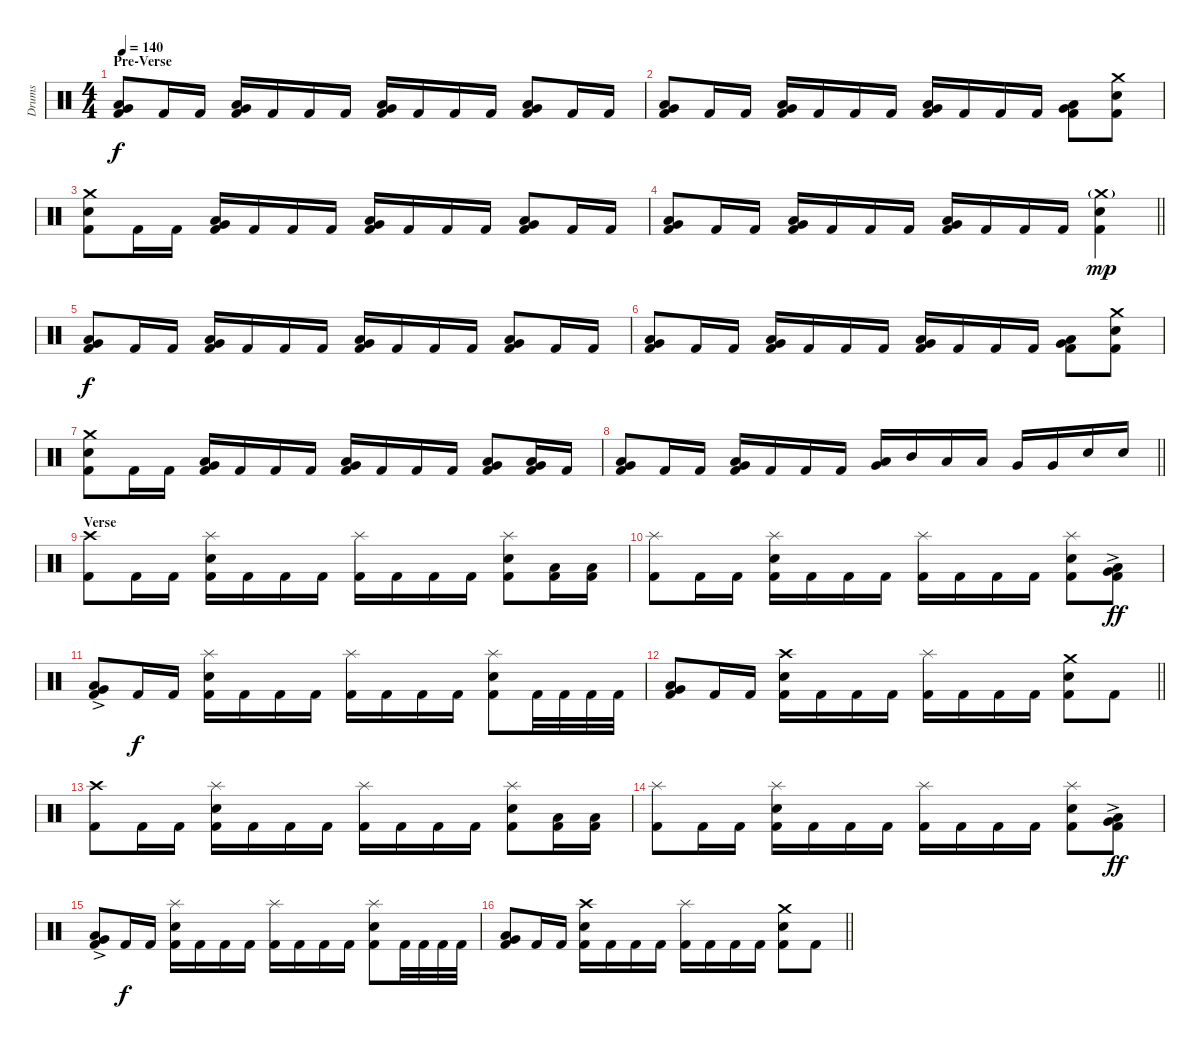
\track ("Drums" "Drums") {instrument percussion}
\staff {score}
\articulation defaults
\ts (4 4)
\section ("" "Pre-Verse")
\tempo 140
\clef neutral
\ks c
("Kick (hit) 2" "Very Low Tom (hit)" "Low Floor Tom (hit)").8{dy f volume 14} "Kick (hit) 2".16 "Kick (hit) 2".16 ("Kick (hit) 2" "Very Low Tom (hit)" "Low Floor Tom (hit)").16 "Kick (hit) 2".16 "Kick (hit) 2".16 "Kick (hit) 2".16 ("Kick (hit) 2" "Very Low Tom (hit)" "Low Floor Tom (hit)").16 "Kick (hit) 2".16 "Kick (hit) 2".16 "Kick (hit) 2".16 ("Kick (hit) 2" "Very Low Tom (hit)" "Low Floor Tom (hit)").8 "Kick (hit) 2".16 "Kick (hit) 2".16 |
("Kick (hit) 2" "Very Low Tom (hit)" "Low Floor Tom (hit)").8 "Kick (hit) 2".16 "Kick (hit) 2".16 ("Kick (hit) 2" "Very Low Tom (hit)" "Low Floor Tom (hit)").16 "Kick (hit) 2".16 "Kick (hit) 2".16 "Kick (hit) 2".16 ("Kick (hit) 2" "Very Low Tom (hit)" "Low Floor Tom (hit)").16 "Kick (hit) 2".16 "Kick (hit) 2".16 "Kick (hit) 2".16 ("Kick (hit) 2" "Very Low Tom (hit)" "Low Floor Tom (hit)").8 ("Kick (hit) 2" "Snare (hit) 2" "Crash medium (hit)").8 |
("Kick (hit) 2" "Snare (hit) 2" "Crash medium (hit)").8 "Kick (hit) 2".16 "Kick (hit) 2".16 ("Kick (hit) 2" "Very Low Tom (hit)" "Low Floor Tom (hit)").16 "Kick (hit) 2".16 "Kick (hit) 2".16 "Kick (hit) 2".16 ("Kick (hit) 2" "Very Low Tom (hit)" "Low Floor Tom (hit)").16 "Kick (hit) 2".16 "Kick (hit) 2".16 "Kick (hit) 2".16 ("Kick (hit) 2" "Very Low Tom (hit)" "Low Floor Tom (hit)").8 "Kick (hit) 2".16 "Kick (hit) 2".16 |
\barLineRight lightlight
("Kick (hit) 2" "Very Low Tom (hit)" "Low Floor Tom (hit)").8 "Kick (hit) 2".16 "Kick (hit) 2".16 ("Kick (hit) 2" "Very Low Tom (hit)" "Low Floor Tom (hit)").16 "Kick (hit) 2".16 "Kick (hit) 2".16 "Kick (hit) 2".16 ("Kick (hit) 2" "Very Low Tom (hit)" "Low Floor Tom (hit)").16 "Kick (hit) 2".16 "Kick (hit) 2".16 "Kick (hit) 2".16 ("Kick (hit) 2" "Snare (hit) 2" "Crash medium (hit)"{g}).4{dy mp} |
\section ("" "")
("Kick (hit) 2" "Very Low Tom (hit)" "Low Floor Tom (hit)").8{dy f} "Kick (hit) 2".16 "Kick (hit) 2".16 ("Kick (hit) 2" "Very Low Tom (hit)" "Low Floor Tom (hit)").16 "Kick (hit) 2".16 "Kick (hit) 2".16 "Kick (hit) 2".16 ("Kick (hit) 2" "Very Low Tom (hit)" "Low Floor Tom (hit)").16 "Kick (hit) 2".16 "Kick (hit) 2".16 "Kick (hit) 2".16 ("Kick (hit) 2" "Very Low Tom (hit)" "Low Floor Tom (hit)").8 "Kick (hit) 2".16 "Kick (hit) 2".16 |
("Kick (hit) 2" "Very Low Tom (hit)" "Low Floor Tom (hit)").8 "Kick (hit) 2".16 "Kick (hit) 2".16 ("Kick (hit) 2" "Very Low Tom (hit)" "Low Floor Tom (hit)").16 "Kick (hit) 2".16 "Kick (hit) 2".16 "Kick (hit) 2".16 ("Kick (hit) 2" "Very Low Tom (hit)" "Low Floor Tom (hit)").16 "Kick (hit) 2".16 "Kick (hit) 2".16 "Kick (hit) 2".16 ("Kick (hit) 2" "Very Low Tom (hit)" "Low Floor Tom (hit)").8 ("Kick (hit) 2" "Snare (hit) 2" "Crash medium (hit)").8 |
("Kick (hit) 2" "Snare (hit) 2" "Crash medium (hit)").8 "Kick (hit) 2".16 "Kick (hit) 2".16 ("Kick (hit) 2" "Very Low Tom (hit)" "Low Floor Tom (hit)").16 "Kick (hit) 2".16 "Kick (hit) 2".16 "Kick (hit) 2".16 ("Kick (hit) 2" "Very Low Tom (hit)" "Low Floor Tom (hit)").16 "Kick (hit) 2".16 "Kick (hit) 2".16 "Kick (hit) 2".16 ("Kick (hit) 2" "Very Low Tom (hit)" "Low Floor Tom (hit)").8 ("Kick (hit) 2" "Very Low Tom (hit)" "Low Floor Tom (hit)").16 "Kick (hit) 2".16 |
\barLineRight lightlight
("Kick (hit) 2" "Very Low Tom (hit)" "Low Floor Tom (hit)").8 "Kick (hit) 2".16 "Kick (hit) 2".16 ("Kick (hit) 2" "Very Low Tom (hit)" "Low Floor Tom (hit)").16 "Kick (hit) 2".16 "Kick (hit) 2".16 "Kick (hit) 2".16 ("Very Low Tom (hit)" "Low Floor Tom (hit)").16 "Mid Tom (hit)".16 "Low Tom (hit)".16 "Low Tom (hit)".16 "Very Low Tom (hit)".16 "Very Low Tom (hit)".16 "Snare (hit) 2".16 "Snare (hit) 2".16 |
\section ("" "Verse")
("Kick (hit) 2" "Crash high (hit)").8 "Kick (hit) 2".16 "Kick (hit) 2".16 ("Kick (hit) 2" "Snare (hit) 2" "Splash (hit)").16 "Kick (hit) 2".16 "Kick (hit) 2".16 "Kick (hit) 2".16 ("Kick (hit) 2" "Splash (hit)").16 "Kick (hit) 2".16 "Kick (hit) 2".16 "Kick (hit) 2".16 ("Kick (hit) 2" "Snare (hit) 2" "Splash (hit)").8 ("Kick (hit) 2" "Low Tom (hit)").16 ("Kick (hit) 2" "Low Tom (hit)").16 |
("Kick (hit) 2" "Splash (hit)").8 "Kick (hit) 2".16 "Kick (hit) 2".16 ("Kick (hit) 2" "Snare (hit) 2" "Splash (hit)").16 "Kick (hit) 2".16 "Kick (hit) 2".16 "Kick (hit) 2".16 ("Kick (hit) 2" "Splash (hit)").16 "Kick (hit) 2".16 "Kick (hit) 2".16 "Kick (hit) 2".16 ("Kick (hit) 2" "Snare (hit) 2" "Splash (hit)").8 ("Kick (hit) 2" "Low Tom (hit)"{ac} "Very Low Tom (hit)"{ac}).8{dy ff} |
("Kick (hit) 2" "Very Low Tom (hit)"{ac} "Low Floor Tom (hit)"{ac}).8 "Kick (hit) 2".16{dy f} "Kick (hit) 2".16 ("Kick (hit) 2" "Snare (hit) 2" "Splash (hit)").16 "Kick (hit) 2".16 "Kick (hit) 2".16 "Kick (hit) 2".16 ("Kick (hit) 2" "Splash (hit)").16 "Kick (hit) 2".16 "Kick (hit) 2".16 "Kick (hit) 2".16 ("Kick (hit) 2" "Snare (hit) 2" "Splash (hit)").8 "Kick (hit) 2".32 "Kick (hit) 2".32 "Kick (hit) 2".32 "Kick (hit) 2".32 |
\barLineRight lightlight
("Kick (hit) 2" "Very Low Tom (hit)" "Low Floor Tom (hit)").8 "Kick (hit) 2".16 "Kick (hit) 2".16 ("Kick (hit) 2" "Snare (hit) 2" "Crash high (hit)").16 "Kick (hit) 2".16 "Kick (hit) 2".16 "Kick (hit) 2".16 ("Kick (hit) 2" "Splash (hit)").16 "Kick (hit) 2".16 "Kick (hit) 2".16 "Kick (hit) 2".16 ("Kick (hit) 2" "Snare (hit) 2" "Crash medium (hit)").8 "Kick (hit) 2".8 |
\section ("" "")
("Kick (hit) 2" "Crash high (hit)").8 "Kick (hit) 2".16 "Kick (hit) 2".16 ("Kick (hit) 2" "Snare (hit) 2" "Splash (hit)").16 "Kick (hit) 2".16 "Kick (hit) 2".16 "Kick (hit) 2".16 ("Kick (hit) 2" "Splash (hit)").16 "Kick (hit) 2".16 "Kick (hit) 2".16 "Kick (hit) 2".16 ("Kick (hit) 2" "Snare (hit) 2" "Splash (hit)").8 ("Kick (hit) 2" "Low Tom (hit)").16 ("Kick (hit) 2" "Low Tom (hit)").16 |
("Kick (hit) 2" "Splash (hit)").8 "Kick (hit) 2".16 "Kick (hit) 2".16 ("Kick (hit) 2" "Snare (hit) 2" "Splash (hit)").16 "Kick (hit) 2".16 "Kick (hit) 2".16 "Kick (hit) 2".16 ("Kick (hit) 2" "Splash (hit)").16 "Kick (hit) 2".16 "Kick (hit) 2".16 "Kick (hit) 2".16 ("Kick (hit) 2" "Snare (hit) 2" "Splash (hit)").8 ("Kick (hit) 2" "Low Tom (hit)"{ac} "Very Low Tom (hit)"{ac}).8{dy ff} |
("Kick (hit) 2" "Very Low Tom (hit)"{ac} "Low Floor Tom (hit)"{ac}).8 "Kick (hit) 2".16{dy f} "Kick (hit) 2".16 ("Kick (hit) 2" "Snare (hit) 2" "Splash (hit)").16 "Kick (hit) 2".16 "Kick (hit) 2".16 "Kick (hit) 2".16 ("Kick (hit) 2" "Splash (hit)").16 "Kick (hit) 2".16 "Kick (hit) 2".16 "Kick (hit) 2".16 ("Kick (hit) 2" "Snare (hit) 2" "Splash (hit)").8 "Kick (hit) 2".32 "Kick (hit) 2".32 "Kick (hit) 2".32 "Kick (hit) 2".32 |
\barLineRight lightlight
("Kick (hit) 2" "Very Low Tom (hit)" "Low Floor Tom (hit)").8 "Kick (hit) 2".16 "Kick (hit) 2".16 ("Kick (hit) 2" "Snare (hit) 2" "Crash high (hit)").16 "Kick (hit) 2".16 "Kick (hit) 2".16 "Kick (hit) 2".16 ("Kick (hit) 2" "Splash (hit)").16 "Kick (hit) 2".16 "Kick (hit) 2".16 "Kick (hit) 2".16 ("Kick (hit) 2" "Snare (hit) 2" "Crash medium (hit)").8 "Kick (hit) 2".8
